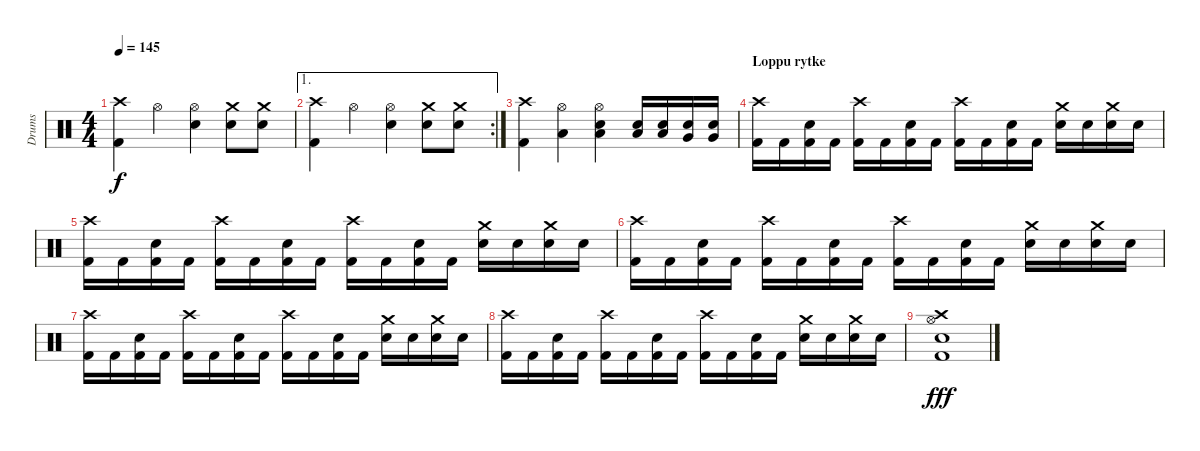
\track ("Drums" "Drums") {instrument percussion}
\staff {score}
\articulation defaults
\ts (4 4)
\tempo 145
\clef neutral
\ks c
("Crash high (hit)" "Kick (hit) 2").4{dy f} "Hi-Hat (open)".4 ("Hi-Hat (open)" "Electric Snare (hit)").4 ("Crash medium (hit)" "Electric Snare (hit)").8 ("Crash medium (hit)" "Electric Snare (hit)").8 |
\ae 1
\rc 2
("Crash high (hit)" "Kick (hit) 2").4 "Hi-Hat (open)".4 ("Hi-Hat (open)" "Electric Snare (hit)").4 ("Crash medium (hit)" "Electric Snare (hit)").8 ("Crash medium (hit)" "Electric Snare (hit)").8 |
("Crash high (hit)" "Kick (hit) 2").4 ("Hi-Hat (open)" "Low Floor Tom (hit)").4 ("Hi-Hat (open)" "Electric Snare (hit)" "Low Floor Tom (hit)").4 ("Low Floor Tom (hit)" "Electric Snare (hit)").16 ("Low Floor Tom (hit)" "Electric Snare (hit)").16 ("Electric Snare (hit)" "Very Low Tom (hit)").16 ("Electric Snare (hit)" "Very Low Tom (hit)").16 |
\section ("" "Loppu rytke")
("Crash high (hit)" "Kick (hit) 2").16 "Kick (hit) 2".16 ("Electric Snare (hit)" "Kick (hit) 2").16 "Kick (hit) 2".16 ("Crash high (hit)" "Kick (hit) 2").16 "Kick (hit) 2".16 ("Electric Snare (hit)" "Kick (hit) 2").16 "Kick (hit) 2".16 ("Crash high (hit)" "Kick (hit) 2").16 "Kick (hit) 2".16 ("Electric Snare (hit)" "Kick (hit) 2").16 "Kick (hit) 2".16 ("Crash medium (hit)" "Electric Snare (hit)").16 "Electric Snare (hit)".16 ("Crash medium (hit)" "Electric Snare (hit)").16 "Electric Snare (hit)".16 |
("Crash high (hit)" "Kick (hit) 2").16 "Kick (hit) 2".16 ("Electric Snare (hit)" "Kick (hit) 2").16 "Kick (hit) 2".16 ("Crash high (hit)" "Kick (hit) 2").16 "Kick (hit) 2".16 ("Electric Snare (hit)" "Kick (hit) 2").16 "Kick (hit) 2".16 ("Crash high (hit)" "Kick (hit) 2").16 "Kick (hit) 2".16 ("Electric Snare (hit)" "Kick (hit) 2").16 "Kick (hit) 2".16 ("Crash medium (hit)" "Electric Snare (hit)").16 "Electric Snare (hit)".16 ("Crash medium (hit)" "Electric Snare (hit)").16 "Electric Snare (hit)".16 |
("Crash high (hit)" "Kick (hit) 2").16 "Kick (hit) 2".16 ("Electric Snare (hit)" "Kick (hit) 2").16 "Kick (hit) 2".16 ("Crash high (hit)" "Kick (hit) 2").16 "Kick (hit) 2".16 ("Electric Snare (hit)" "Kick (hit) 2").16 "Kick (hit) 2".16 ("Crash high (hit)" "Kick (hit) 2").16 "Kick (hit) 2".16 ("Electric Snare (hit)" "Kick (hit) 2").16 "Kick (hit) 2".16 ("Crash medium (hit)" "Electric Snare (hit)").16 "Electric Snare (hit)".16 ("Crash medium (hit)" "Electric Snare (hit)").16 "Electric Snare (hit)".16 |
("Crash high (hit)" "Kick (hit) 2").16 "Kick (hit) 2".16 ("Electric Snare (hit)" "Kick (hit) 2").16 "Kick (hit) 2".16 ("Crash high (hit)" "Kick (hit) 2").16 "Kick (hit) 2".16 ("Electric Snare (hit)" "Kick (hit) 2").16 "Kick (hit) 2".16 ("Crash high (hit)" "Kick (hit) 2").16 "Kick (hit) 2".16 ("Electric Snare (hit)" "Kick (hit) 2").16 "Kick (hit) 2".16 ("Crash medium (hit)" "Electric Snare (hit)").16 "Electric Snare (hit)".16 ("Crash medium (hit)" "Electric Snare (hit)").16 "Electric Snare (hit)".16 |
("Crash high (hit)" "Kick (hit) 2").16 "Kick (hit) 2".16 ("Electric Snare (hit)" "Kick (hit) 2").16 "Kick (hit) 2".16 ("Crash high (hit)" "Kick (hit) 2").16 "Kick (hit) 2".16 ("Electric Snare (hit)" "Kick (hit) 2").16 "Kick (hit) 2".16 ("Crash high (hit)" "Kick (hit) 2").16 "Kick (hit) 2".16 ("Electric Snare (hit)" "Kick (hit) 2").16 "Kick (hit) 2".16 ("Crash medium (hit)" "Electric Snare (hit)").16 "Electric Snare (hit)".16 ("Crash medium (hit)" "Electric Snare (hit)").16 "Electric Snare (hit)".16 |
("Crash high (hit)" "Hi-Hat (open)" "Electric Snare (hit)" "Kick (hit) 2").1{dy fff}
